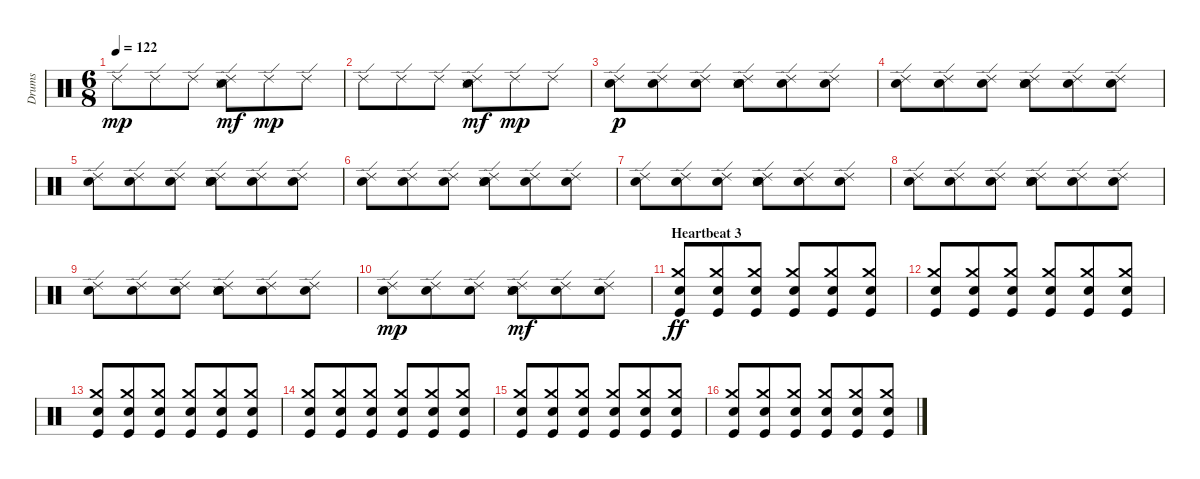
\track ("Drums" "Drums") {instrument percussion}
\staff {score}
\articulation defaults
\ts (6 8)
\tempo 122
\clef neutral
\ks c "Ride (edge) 2".8{dy mp} "Ride (edge) 2".8 "Ride (edge) 2".8
("Ride (edge) 2" "Hand Clap (hit)" "Snare (side stick) 3").8{dy mf} "Ride (edge) 2".8{dy mp} "Ride (edge) 2".8 |
"Ride (edge) 2".8 "Ride (edge) 2".8 "Ride (edge) 2".8 ("Ride (edge) 2" "Hand Clap (hit)" "Snare (side stick) 3").8{dy mf} "Ride (edge) 2".8{dy mp} "Ride (edge) 2".8 |
("Ride (edge) 2" "Electric Snare (hit)").8{dy p} ("Ride (edge) 2" "Electric Snare (hit)").8 ("Ride (edge) 2" "Electric Snare (hit)").8 ("Ride (edge) 2" "Hand Clap (hit)" "Snare (side stick) 3" "Electric Snare (hit)").8 ("Ride (edge) 2" "Electric Snare (hit)").8 ("Ride (edge) 2" "Electric Snare (hit)").8 |
("Ride (edge) 2" "Electric Snare (hit)").8 ("Ride (edge) 2" "Electric Snare (hit)").8 ("Ride (edge) 2" "Electric Snare (hit)").8 ("Ride (edge) 2" "Hand Clap (hit)" "Snare (side stick) 3" "Electric Snare (hit)").8 ("Ride (edge) 2" "Electric Snare (hit)").8 ("Ride (edge) 2" "Electric Snare (hit)").8 |
("Ride (edge) 2" "Electric Snare (hit)").8 ("Ride (edge) 2" "Electric Snare (hit)").8 ("Ride (edge) 2" "Electric Snare (hit)").8 ("Ride (edge) 2" "Hand Clap (hit)" "Snare (side stick) 3" "Electric Snare (hit)").8 ("Ride (edge) 2" "Electric Snare (hit)").8 ("Ride (edge) 2" "Electric Snare (hit)").8 |
("Ride (edge) 2" "Electric Snare (hit)").8 ("Ride (edge) 2" "Electric Snare (hit)").8 ("Ride (edge) 2" "Electric Snare (hit)").8 ("Ride (edge) 2" "Hand Clap (hit)" "Snare (side stick) 3" "Electric Snare (hit)").8 ("Ride (edge) 2" "Electric Snare (hit)").8 ("Ride (edge) 2" "Electric Snare (hit)").8 |
("Ride (edge) 2" "Electric Snare (hit)").8 ("Ride (edge) 2" "Electric Snare (hit)").8 ("Ride (edge) 2" "Electric Snare (hit)").8 ("Ride (edge) 2" "Hand Clap (hit)" "Snare (side stick) 3" "Electric Snare (hit)").8 ("Ride (edge) 2" "Electric Snare (hit)").8 ("Ride (edge) 2" "Electric Snare (hit)").8 |
("Ride (edge) 2" "Electric Snare (hit)").8 ("Ride (edge) 2" "Electric Snare (hit)").8 ("Ride (edge) 2" "Electric Snare (hit)").8 ("Ride (edge) 2" "Hand Clap (hit)" "Snare (side stick) 3" "Electric Snare (hit)").8 ("Ride (edge) 2" "Electric Snare (hit)").8 ("Ride (edge) 2" "Electric Snare (hit)").8 |
("Ride (edge) 2" "Electric Snare (hit)").8 ("Ride (edge) 2" "Electric Snare (hit)").8 ("Ride (edge) 2" "Electric Snare (hit)").8 ("Ride (edge) 2" "Hand Clap (hit)" "Snare (side stick) 3" "Electric Snare (hit)").8 ("Ride (edge) 2" "Electric Snare (hit)").8 ("Ride (edge) 2" "Electric Snare (hit)").8 |
("Ride (edge) 2" "Electric Snare (hit)").8{dy mp} ("Ride (edge) 2" "Electric Snare (hit)").8 ("Ride (edge) 2" "Electric Snare (hit)").8 ("Ride (edge) 2" "Hand Clap (hit)" "Snare (side stick) 3" "Electric Snare (hit)").8{dy mf} ("Ride (edge) 2" "Electric Snare (hit)").8 ("Ride (edge) 2" "Electric Snare (hit)").8 |
\section ("" "Heartbeat 3")
("Crash medium (hit)" "Electric Snare (hit)" "Kick (hit)").8{dy ff} ("Crash medium (hit)" "Electric Snare (hit)" "Kick (hit)").8 ("Crash medium (hit)" "Electric Snare (hit)" "Kick (hit)").8 ("Crash medium (hit)" "Electric Snare (hit)" "Kick (hit)").8 ("Crash medium (hit)" "Electric Snare (hit)" "Kick (hit)").8 ("Crash medium (hit)" "Electric Snare (hit)" "Kick (hit)").8 |
("Crash medium (hit)" "Electric Snare (hit)" "Kick (hit)").8 ("Crash medium (hit)" "Electric Snare (hit)" "Kick (hit)").8 ("Crash medium (hit)" "Electric Snare (hit)" "Kick (hit)").8 ("Crash medium (hit)" "Electric Snare (hit)" "Kick (hit)").8 ("Crash medium (hit)" "Electric Snare (hit)" "Kick (hit)").8 ("Crash medium (hit)" "Electric Snare (hit)" "Kick (hit)").8 |
("Crash medium (hit)" "Electric Snare (hit)" "Kick (hit)").8 ("Crash medium (hit)" "Electric Snare (hit)" "Kick (hit)").8 ("Crash medium (hit)" "Electric Snare (hit)" "Kick (hit)").8 ("Crash medium (hit)" "Electric Snare (hit)" "Kick (hit)").8 ("Crash medium (hit)" "Electric Snare (hit)" "Kick (hit)").8 ("Crash medium (hit)" "Electric Snare (hit)" "Kick (hit)").8 |
("Crash medium (hit)" "Electric Snare (hit)" "Kick (hit)").8 ("Crash medium (hit)" "Electric Snare (hit)" "Kick (hit)").8 ("Crash medium (hit)" "Electric Snare (hit)" "Kick (hit)").8 ("Crash medium (hit)" "Electric Snare (hit)" "Kick (hit)").8 ("Crash medium (hit)" "Electric Snare (hit)" "Kick (hit)").8 ("Crash medium (hit)" "Electric Snare (hit)" "Kick (hit)").8 |
("Crash medium (hit)" "Electric Snare (hit)" "Kick (hit)").8 ("Crash medium (hit)" "Electric Snare (hit)" "Kick (hit)").8 ("Crash medium (hit)" "Electric Snare (hit)" "Kick (hit)").8 ("Crash medium (hit)" "Electric Snare (hit)" "Kick (hit)").8 ("Crash medium (hit)" "Electric Snare (hit)" "Kick (hit)").8 ("Crash medium (hit)" "Electric Snare (hit)" "Kick (hit)").8 |
("Crash medium (hit)" "Electric Snare (hit)" "Kick (hit)").8 ("Crash medium (hit)" "Electric Snare (hit)" "Kick (hit)").8 ("Crash medium (hit)" "Electric Snare (hit)" "Kick (hit)").8 ("Crash medium (hit)" "Electric Snare (hit)" "Kick (hit)").8 ("Crash medium (hit)" "Electric Snare (hit)" "Kick (hit)").8 ("Crash medium (hit)" "Electric Snare (hit)" "Kick (hit)").8
